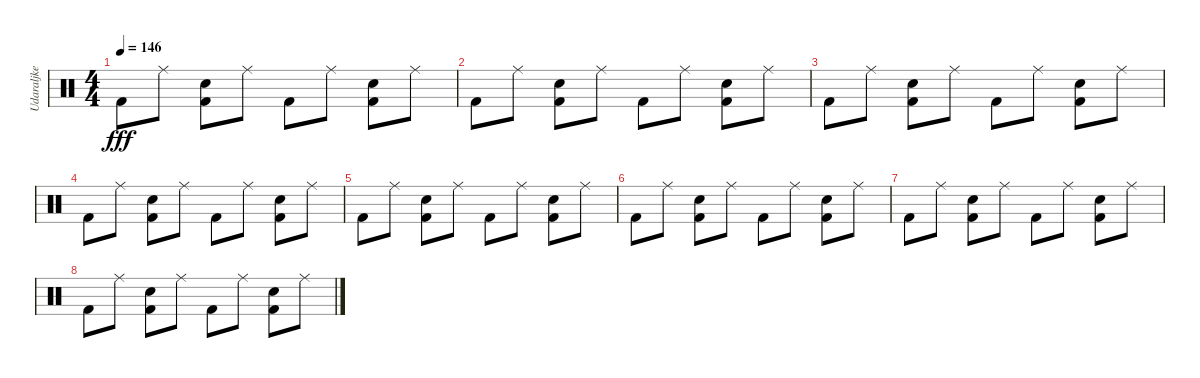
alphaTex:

\track ("Udaraljke" "Udaraljke") {instrument percussion}
\staff {score}
\articulation defaults
\ts (4 4)
\tempo 146
\clef neutral
\ks c "Kick (hit) 2".8{dy fff} "Ride (middle)".8
("Kick (hit) 2" "Hand Clap (hit)").8 "Ride (middle)".8 "Kick (hit) 2".8 "Ride (middle)".8 ("Kick (hit) 2" "Hand Clap (hit)").8 "Ride (middle)".8 |
"Kick (hit) 2".8 "Ride (middle)".8 ("Kick (hit) 2" "Hand Clap (hit)").8 "Ride (middle)".8 "Kick (hit) 2".8 "Ride (middle)".8 ("Kick (hit) 2" "Hand Clap (hit)").8 "Ride (middle)".8 |
"Kick (hit) 2".8 "Ride (middle)".8 ("Kick (hit) 2" "Hand Clap (hit)").8 "Ride (middle)".8 "Kick (hit) 2".8 "Ride (middle)".8 ("Kick (hit) 2" "Hand Clap (hit)").8 "Ride (middle)".8 |
"Kick (hit) 2".8 "Ride (middle)".8 ("Kick (hit) 2" "Hand Clap (hit)").8 "Ride (middle)".8 "Kick (hit) 2".8 "Ride (middle)".8 ("Kick (hit) 2" "Hand Clap (hit)").8 "Ride (middle)".8 |
"Kick (hit) 2".8 "Ride (middle)".8 ("Kick (hit) 2" "Hand Clap (hit)").8 "Ride (middle)".8 "Kick (hit) 2".8 "Ride (middle)".8 ("Kick (hit) 2" "Hand Clap (hit)").8 "Ride (middle)".8 |
"Kick (hit) 2".8 "Ride (middle)".8 ("Kick (hit) 2" "Hand Clap (hit)").8 "Ride (middle)".8 "Kick (hit) 2".8 "Ride (middle)".8 ("Kick (hit) 2" "Hand Clap (hit)").8 "Ride (middle)".8 |
"Kick (hit) 2".8 "Ride (middle)".8 ("Kick (hit) 2" "Hand Clap (hit)").8 "Ride (middle)".8 "Kick (hit) 2".8 "Ride (middle)".8 ("Kick (hit) 2" "Hand Clap (hit)").8 "Ride (middle)".8 |
"Kick (hit) 2".8 "Ride (middle)".8 ("Kick (hit) 2" "Hand Clap (hit)").8 "Ride (middle)".8 "Kick (hit) 2".8 "Ride (middle)".8 ("Kick (hit) 2" "Hand Clap (hit)").8 "Ride (middle)".8
